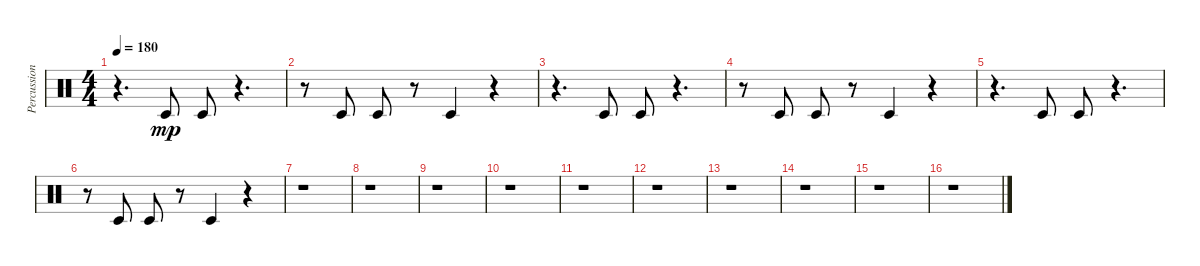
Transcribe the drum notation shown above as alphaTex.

\track ("Percussion" "Percussion") {instrument percussion}
\staff {score}
\articulation defaults
\ts (4 4)
\tempo 180
\clef neutral
\ks c
r.4{d dy mp} "Timbale low (hit)".8 "Timbale low (hit)".8 r.4{d} |
r.8 "Timbale low (hit)".8 "Timbale low (hit)".8 r.8 "Timbale low (hit)".4 r.4 |
r.4{d} "Timbale low (hit)".8 "Timbale low (hit)".8 r.4{d} |
r.8 "Timbale low (hit)".8 "Timbale low (hit)".8 r.8 "Timbale low (hit)".4 r.4 |
r.4{d} "Timbale low (hit)".8 "Timbale low (hit)".8 r.4{d} |
r.8 "Timbale low (hit)".8 "Timbale low (hit)".8 r.8 "Timbale low (hit)".4 r.4 |
r.1 |
r.1 |
r.1 |
r.1 |
r.1 |
r.1 |
r.1 |
r.1 |
r.1 |
r.1
